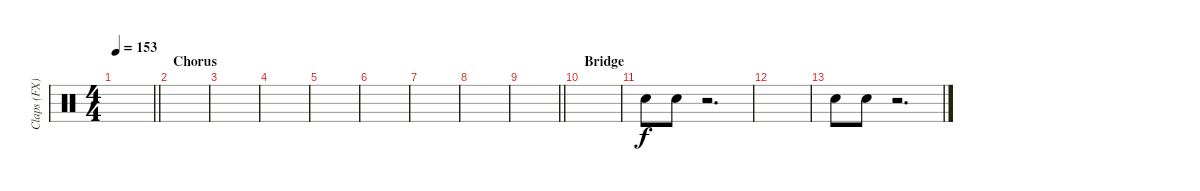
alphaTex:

\track ("Claps (FX)" "Claps (FX)") {instrument percussion}
\staff {score}
\articulation defaults
\ts (4 4)
\tempo 153
\clef neutral
\barLineRight lightlight
\ks c
|
\section ("" "Chorus")
|
|
|
|
|
|
|
\barLineRight lightlight
|
\section ("" "Bridge")
|
"Hand Clap (hit)".8{volume 8} "Hand Clap (hit)".8 r.2{d} |
|
"Hand Clap (hit)".8 "Hand Clap (hit)".8 r.2{d}
